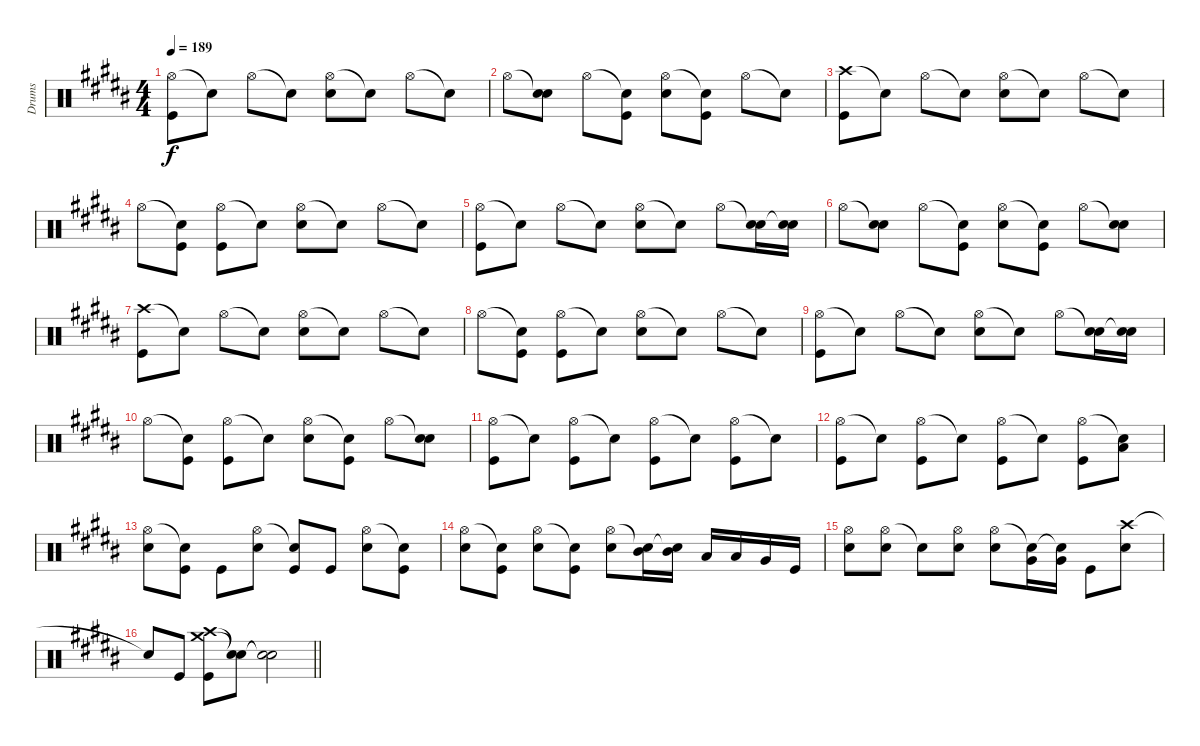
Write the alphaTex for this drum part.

\track ("Drums" "Drums") {instrument percussion}
\staff {score}
\articulation defaults
\ts (4 4)
\tempo 189
\clef neutral
\ks b
("Hi-Hat (open)" "Kick (hit)").8{dy f} "Snare (hit)"{t}.8 "Hi-Hat (open)".8 "Snare (hit)"{t}.8 ("Hi-Hat (open)" "Snare (hit) 2").8 "Snare (hit)"{t}.8 "Hi-Hat (open)".8 "Snare (hit)"{t}.8 |
"Hi-Hat (open)".8 ("Snare (hit)"{t} "Snare (hit) 2").8 "Hi-Hat (open)".8 ("Snare (hit)"{t} "Kick (hit)").8 ("Hi-Hat (open)" "Snare (hit) 2").8 ("Snare (hit)"{t} "Kick (hit)").8 "Hi-Hat (open)".8 "Snare (hit)"{t}.8 |
("Crash high (hit)" "Kick (hit)").8 "Snare (hit)"{t}.8 "Hi-Hat (open)".8 "Snare (hit)"{t}.8 ("Hi-Hat (open)" "Snare (hit) 2").8 "Snare (hit)"{t}.8 "Hi-Hat (open)".8 "Snare (hit)"{t}.8 |
"Hi-Hat (open)".8 ("Snare (hit)"{t} "Kick (hit)").8 ("Hi-Hat (open)" "Kick (hit)").8 "Snare (hit)"{t}.8 ("Hi-Hat (open)" "Snare (hit) 2").8 "Snare (hit)"{t}.8 "Hi-Hat (open)".8 "Snare (hit)"{t}.8 |
("Hi-Hat (open)" "Kick (hit)").8 "Snare (hit)"{t}.8 "Hi-Hat (open)".8 "Snare (hit)"{t}.8 ("Hi-Hat (open)" "Snare (hit) 2").8 "Snare (hit)"{t}.8 "Hi-Hat (open)".8 ("Snare (hit)"{t} "Snare (hit) 2").16 ("Snare (hit)"{t} "Snare (hit) 2").16 |
"Hi-Hat (open)".8 ("Snare (hit)"{t} "Snare (hit) 2").8 "Hi-Hat (open)".8 ("Snare (hit)"{t} "Kick (hit)").8 ("Hi-Hat (open)" "Snare (hit) 2").8 ("Snare (hit)"{t} "Kick (hit)").8 "Hi-Hat (open)".8 ("Snare (hit)"{t} "Snare (hit) 2").8 |
("Crash high (hit)" "Kick (hit)").8 "Snare (hit)"{t}.8 "Hi-Hat (open)".8 "Snare (hit)"{t}.8 ("Hi-Hat (open)" "Snare (hit) 2").8 "Snare (hit)"{t}.8 "Hi-Hat (open)".8 "Snare (hit)"{t}.8 |
"Hi-Hat (open)".8 ("Snare (hit)"{t} "Kick (hit)").8 ("Hi-Hat (open)" "Kick (hit)").8 "Snare (hit)"{t}.8 ("Hi-Hat (open)" "Snare (hit) 2").8 "Snare (hit)"{t}.8 "Hi-Hat (open)".8 "Snare (hit)"{t}.8 |
("Hi-Hat (open)" "Kick (hit)").8 "Snare (hit)"{t}.8 "Hi-Hat (open)".8 "Snare (hit)"{t}.8 ("Hi-Hat (open)" "Snare (hit) 2").8 "Snare (hit)"{t}.8 "Hi-Hat (open)".8 ("Snare (hit)"{t} "Snare (hit) 2").16 ("Snare (hit)"{t} "Snare (hit) 2").16 |
"Hi-Hat (open)".8 ("Snare (hit)"{t} "Kick (hit)").8 ("Hi-Hat (open)" "Kick (hit)").8 "Snare (hit)"{t}.8 ("Hi-Hat (open)" "Snare (hit) 2").8 ("Snare (hit)"{t} "Kick (hit)").8 "Hi-Hat (open)".8 ("Snare (hit)"{t} "Snare (hit) 2").8 |
("Hi-Hat (open)" "Kick (hit)").8 "Snare (hit)"{t}.8 ("Hi-Hat (open)" "Kick (hit)").8 "Snare (hit)"{t}.8 ("Hi-Hat (open)" "Kick (hit)").8 "Snare (hit)"{t}.8 ("Hi-Hat (open)" "Kick (hit)").8 "Snare (hit)"{t}.8 |
("Hi-Hat (open)" "Kick (hit)").8 "Snare (hit)"{t}.8 ("Hi-Hat (open)" "Kick (hit)").8 "Snare (hit)"{t}.8 ("Hi-Hat (open)" "Kick (hit)").8 "Snare (hit)"{t}.8 ("Hi-Hat (open)" "Kick (hit)").8 ("Snare (hit)"{t} "Low Tom (hit)").8 |
("Hi-Hat (open)" "Snare (hit) 2").8 ("Snare (hit)"{t} "Kick (hit)").8 "Kick (hit)".8 ("Hi-Hat (open)" "Snare (hit) 2").8 ("Snare (hit)"{t} "Kick (hit)").8 "Kick (hit)".8 ("Hi-Hat (open)" "Snare (hit) 2").8 ("Snare (hit)"{t} "Kick (hit)").8 |
("Hi-Hat (open)" "Snare (hit) 2").8 ("Snare (hit)"{t} "Kick (hit)").8 ("Hi-Hat (open)" "Snare (hit) 2").8 ("Snare (hit)"{t} "Kick (hit)").8 ("Hi-Hat (open)" "Snare (hit) 2").8 ("Snare (hit)"{t} "Mid Tom (hit)").16 ("Snare (hit)"{t} "Mid Tom (hit)").16 "Low Tom (hit)".16 "Low Tom (hit)".16 "Very Low Tom (hit)".16 "Kick (hit)".16 |
("Hi-Hat (open)" "Snare (hit) 2").8 ("Hi-Hat (open)" "Snare (hit) 2").8 "Snare (hit)"{t}.8 ("Hi-Hat (open)" "Snare (hit) 2").8 ("Hi-Hat (open)" "Snare (hit) 2").8 ("Snare (hit)"{t} "Very Low Tom (hit)").16 ("Snare (hit)"{t} "Very Low Tom (hit)").16 "Kick (hit)".8 ("Crash high (hit)" "Snare (hit) 2").8 |
\barLineRight lightlight "Snare (hit)"{t}.8 "Kick (hit)".8
("Crash high (hit)" "Crash medium (hit)" "Kick (hit)").8 ("Snare (hit)"{t} "Snare (hit)"{t}).8 ("Snare (hit)"{t} "Snare (hit)"{t}).2
